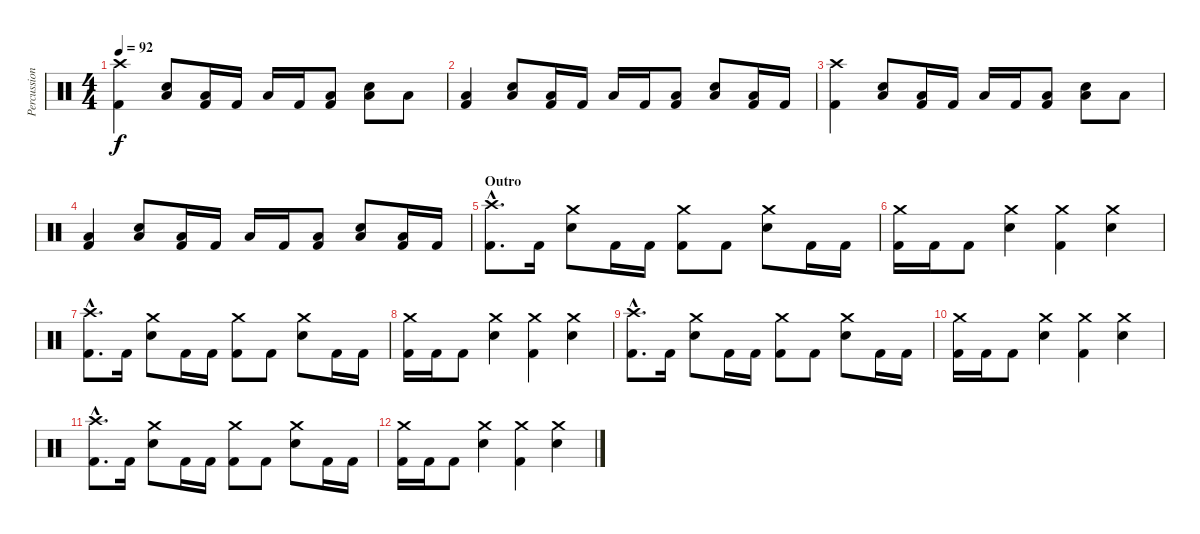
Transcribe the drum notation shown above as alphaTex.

\track ("Percussion" "Percussion") {instrument percussion}
\staff {score}
\articulation defaults
\ts (4 4)
\tempo 92
\clef neutral
\ks c
("Crash high (hit)" "Kick (hit) 2").4{dy f} ("Low Tom (hit)" "Electric Snare (hit)").8 ("Low Tom (hit)" "Kick (hit) 2").16 "Kick (hit) 2".16 "Low Tom (hit)".16 "Kick (hit) 2".16 ("Low Tom (hit)" "Kick (hit) 2").8 ("Low Tom (hit)" "Electric Snare (hit)").8 "Low Tom (hit)".8 |
("Low Tom (hit)" "Kick (hit) 2").4 ("Low Tom (hit)" "Electric Snare (hit)").8 ("Low Tom (hit)" "Kick (hit) 2").16 "Kick (hit) 2".16 "Low Tom (hit)".16 "Kick (hit) 2".16 ("Low Tom (hit)" "Kick (hit) 2").8 ("Low Tom (hit)" "Electric Snare (hit)").8 ("Low Tom (hit)" "Kick (hit) 2").16 "Kick (hit) 2".16 |
("Crash high (hit)" "Kick (hit) 2").4 ("Low Tom (hit)" "Electric Snare (hit)").8 ("Low Tom (hit)" "Kick (hit) 2").16 "Kick (hit) 2".16 "Low Tom (hit)".16 "Kick (hit) 2".16 ("Low Tom (hit)" "Kick (hit) 2").8 ("Low Tom (hit)" "Electric Snare (hit)").8 "Low Tom (hit)".8 |
("Low Tom (hit)" "Kick (hit) 2").4 ("Low Tom (hit)" "Electric Snare (hit)").8 ("Low Tom (hit)" "Kick (hit) 2").16 "Kick (hit) 2".16 "Low Tom (hit)".16 "Kick (hit) 2".16 ("Low Tom (hit)" "Kick (hit) 2").8 ("Low Tom (hit)" "Electric Snare (hit)").8 ("Low Tom (hit)" "Kick (hit) 2").16 "Kick (hit) 2".16 |
\section ("" "Outro")
("Crash high (hit)"{hac} "Kick (hit) 2"{hac}).8{d} "Kick (hit) 2".16 ("Crash medium (hit)" "Electric Snare (hit)").8 "Kick (hit) 2".16 "Kick (hit) 2".16 ("Crash medium (hit)" "Kick (hit) 2").8 "Kick (hit) 2".8 ("Crash medium (hit)" "Electric Snare (hit)").8 "Kick (hit) 2".16 "Kick (hit) 2".16 |
("Crash medium (hit)" "Kick (hit) 2").16 "Kick (hit) 2".16 "Kick (hit) 2".8 ("Crash medium (hit)" "Electric Snare (hit)").4 ("Crash medium (hit)" "Kick (hit) 2").4 ("Crash medium (hit)" "Electric Snare (hit)").4 |
("Crash high (hit)"{hac} "Kick (hit) 2"{hac}).8{d} "Kick (hit) 2".16 ("Crash medium (hit)" "Electric Snare (hit)").8 "Kick (hit) 2".16 "Kick (hit) 2".16 ("Crash medium (hit)" "Kick (hit) 2").8 "Kick (hit) 2".8 ("Crash medium (hit)" "Electric Snare (hit)").8 "Kick (hit) 2".16 "Kick (hit) 2".16 |
("Crash medium (hit)" "Kick (hit) 2").16 "Kick (hit) 2".16 "Kick (hit) 2".8 ("Crash medium (hit)" "Electric Snare (hit)").4 ("Crash medium (hit)" "Kick (hit) 2").4 ("Crash medium (hit)" "Electric Snare (hit)").4 |
("Crash high (hit)"{hac} "Kick (hit) 2"{hac}).8{d} "Kick (hit) 2".16 ("Crash medium (hit)" "Electric Snare (hit)").8 "Kick (hit) 2".16 "Kick (hit) 2".16 ("Crash medium (hit)" "Kick (hit) 2").8 "Kick (hit) 2".8 ("Crash medium (hit)" "Electric Snare (hit)").8 "Kick (hit) 2".16 "Kick (hit) 2".16 |
("Crash medium (hit)" "Kick (hit) 2").16 "Kick (hit) 2".16 "Kick (hit) 2".8 ("Crash medium (hit)" "Electric Snare (hit)").4 ("Crash medium (hit)" "Kick (hit) 2").4 ("Crash medium (hit)" "Electric Snare (hit)").4 |
("Crash high (hit)"{hac} "Kick (hit) 2"{hac}).8{d} "Kick (hit) 2".16 ("Crash medium (hit)" "Electric Snare (hit)").8 "Kick (hit) 2".16 "Kick (hit) 2".16 ("Crash medium (hit)" "Kick (hit) 2").8 "Kick (hit) 2".8 ("Crash medium (hit)" "Electric Snare (hit)").8 "Kick (hit) 2".16 "Kick (hit) 2".16 |
("Crash medium (hit)" "Kick (hit) 2").16 "Kick (hit) 2".16 "Kick (hit) 2".8 ("Crash medium (hit)" "Electric Snare (hit)").4 ("Crash medium (hit)" "Kick (hit) 2").4 ("Crash medium (hit)" "Electric Snare (hit)").4
